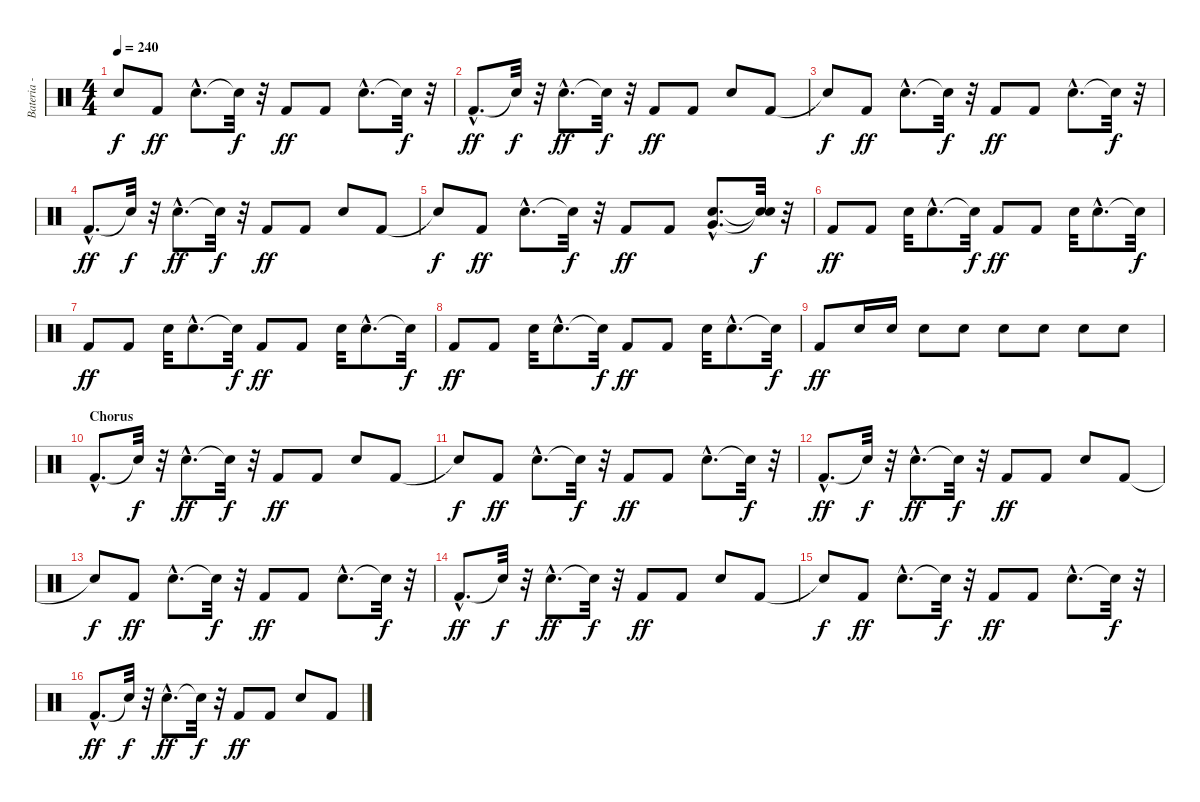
\track ("Bateria - Larzon" "Bateria - ") {instrument percussion}
\staff {score}
\articulation defaults
\ts (4 4)
\tempo 240
\clef neutral
\ks c "Snare (hit)"{t}.8{dy f} "Kick (hit) 2".8{dy ff} "Electric Snare (hit)"{hac}.8{d} "Snare (hit)"{t}.32{dy f}
r.32 "Kick (hit) 2".8{dy ff} "Kick (hit) 2".8 "Electric Snare (hit)"{hac}.8{d} "Snare (hit)"{t}.32{dy f} r.32 |
"Kick (hit) 2"{hac}.8{d dy ff} "Snare (hit)"{t}.32{dy f} r.32 "Electric Snare (hit)"{hac}.8{d dy ff} "Snare (hit)"{t}.32{dy f} r.32 "Kick (hit) 2".8{dy ff} "Kick (hit) 2".8 "Electric Snare (hit)".8 "Kick (hit) 2".8 |
"Snare (hit)"{t}.8{dy f} "Kick (hit) 2".8{dy ff} "Electric Snare (hit)"{hac}.8{d} "Snare (hit)"{t}.32{dy f} r.32 "Kick (hit) 2".8{dy ff} "Kick (hit) 2".8 "Electric Snare (hit)"{hac}.8{d} "Snare (hit)"{t}.32{dy f} r.32 |
"Kick (hit) 2"{hac}.8{d dy ff} "Snare (hit)"{t}.32{dy f} r.32 "Electric Snare (hit)"{hac}.8{d dy ff} "Snare (hit)"{t}.32{dy f} r.32 "Kick (hit) 2".8{dy ff} "Kick (hit) 2".8 "Electric Snare (hit)".8 "Kick (hit) 2".8 |
"Snare (hit)"{t}.8{dy f} "Kick (hit) 2".8{dy ff} "Electric Snare (hit)"{hac}.8{d} "Snare (hit)"{t}.32{dy f} r.32 "Kick (hit) 2".8{dy ff} "Kick (hit) 2".8 ("Electric Snare (hit)"{hac} "Very Low Tom (hit)"{hac}).8{d} ("Snare (hit)"{t} "Snare (hit)"{t}).32{dy f} r.32 |
"Kick (hit) 2".8{dy ff} "Kick (hit) 2".8 "Electric Snare (hit)".32 "Electric Snare (hit)"{hac}.8{d} "Snare (hit)"{t}.32{dy f} "Kick (hit) 2".8{dy ff} "Kick (hit) 2".8 "Electric Snare (hit)".32 "Electric Snare (hit)"{hac}.8{d} "Snare (hit)"{t}.32{dy f} |
"Kick (hit) 2".8{dy ff} "Kick (hit) 2".8 "Electric Snare (hit)".32 "Electric Snare (hit)"{hac}.8{d} "Snare (hit)"{t}.32{dy f} "Kick (hit) 2".8{dy ff} "Kick (hit) 2".8 "Electric Snare (hit)".32 "Electric Snare (hit)"{hac}.8{d} "Snare (hit)"{t}.32{dy f} |
"Kick (hit) 2".8{dy ff} "Kick (hit) 2".8 "Electric Snare (hit)".32 "Electric Snare (hit)"{hac}.8{d} "Snare (hit)"{t}.32{dy f} "Kick (hit) 2".8{dy ff} "Kick (hit) 2".8 "Electric Snare (hit)".32 "Electric Snare (hit)"{hac}.8{d} "Snare (hit)"{t}.32{dy f} |
"Kick (hit) 2".8{dy ff} "Electric Snare (hit)".16 "Electric Snare (hit)".16 "Electric Snare (hit)".8 "Electric Snare (hit)".8 "Electric Snare (hit)".8 "Electric Snare (hit)".8 "Electric Snare (hit)".8 "Electric Snare (hit)".8 |
\section ("" "Chorus")
"Kick (hit) 2"{hac}.8{d} "Snare (hit)"{t}.32{dy f} r.32 "Electric Snare (hit)"{hac}.8{d dy ff} "Snare (hit)"{t}.32{dy f} r.32 "Kick (hit) 2".8{dy ff} "Kick (hit) 2".8 "Electric Snare (hit)".8 "Kick (hit) 2".8 |
"Snare (hit)"{t}.8{dy f} "Kick (hit) 2".8{dy ff} "Electric Snare (hit)"{hac}.8{d} "Snare (hit)"{t}.32{dy f} r.32 "Kick (hit) 2".8{dy ff} "Kick (hit) 2".8 "Electric Snare (hit)"{hac}.8{d} "Snare (hit)"{t}.32{dy f} r.32 |
"Kick (hit) 2"{hac}.8{d dy ff} "Snare (hit)"{t}.32{dy f} r.32 "Electric Snare (hit)"{hac}.8{d dy ff} "Snare (hit)"{t}.32{dy f} r.32 "Kick (hit) 2".8{dy ff} "Kick (hit) 2".8 "Electric Snare (hit)".8 "Kick (hit) 2".8 |
"Snare (hit)"{t}.8{dy f} "Kick (hit) 2".8{dy ff} "Electric Snare (hit)"{hac}.8{d} "Snare (hit)"{t}.32{dy f} r.32 "Kick (hit) 2".8{dy ff} "Kick (hit) 2".8 "Electric Snare (hit)"{hac}.8{d} "Snare (hit)"{t}.32{dy f} r.32 |
"Kick (hit) 2"{hac}.8{d dy ff} "Snare (hit)"{t}.32{dy f} r.32 "Electric Snare (hit)"{hac}.8{d dy ff} "Snare (hit)"{t}.32{dy f} r.32 "Kick (hit) 2".8{dy ff} "Kick (hit) 2".8 "Electric Snare (hit)".8 "Kick (hit) 2".8 |
"Snare (hit)"{t}.8{dy f} "Kick (hit) 2".8{dy ff} "Electric Snare (hit)"{hac}.8{d} "Snare (hit)"{t}.32{dy f} r.32 "Kick (hit) 2".8{dy ff} "Kick (hit) 2".8 "Electric Snare (hit)"{hac}.8{d} "Snare (hit)"{t}.32{dy f} r.32 |
"Kick (hit) 2"{hac}.8{d dy ff} "Snare (hit)"{t}.32{dy f} r.32 "Electric Snare (hit)"{hac}.8{d dy ff} "Snare (hit)"{t}.32{dy f} r.32 "Kick (hit) 2".8{dy ff} "Kick (hit) 2".8 "Electric Snare (hit)".8 "Kick (hit) 2".8
